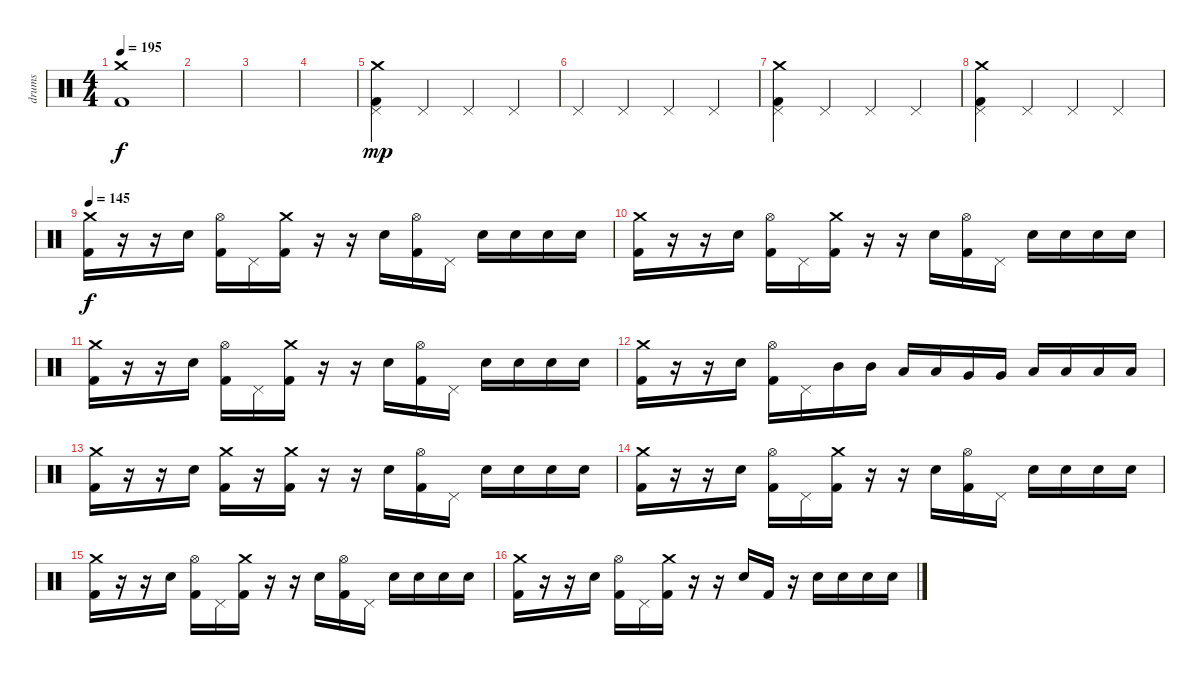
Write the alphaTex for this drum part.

\track ("drums" "drums") {instrument percussion}
\staff {score}
\articulation defaults
\ts (4 4)
\tempo 195
\clef neutral
\ks c
("Crash medium (hit)" "Kick (hit) 2").1{dy f} |
|
|
|
("Pedal Hi-Hat (hit)" "Crash medium (hit)" "Kick (hit) 2").4{dy mp} "Pedal Hi-Hat (hit)".4 "Pedal Hi-Hat (hit)".4 "Pedal Hi-Hat (hit)".4 |
"Pedal Hi-Hat (hit)".4 "Pedal Hi-Hat (hit)".4 "Pedal Hi-Hat (hit)".4 "Pedal Hi-Hat (hit)".4 |
("Pedal Hi-Hat (hit)" "Crash medium (hit)" "Kick (hit) 2").4 "Pedal Hi-Hat (hit)".4 "Pedal Hi-Hat (hit)".4 "Pedal Hi-Hat (hit)".4 |
("Pedal Hi-Hat (hit)" "Crash medium (hit)" "Kick (hit) 2").4 "Pedal Hi-Hat (hit)".4 "Pedal Hi-Hat (hit)".4 "Pedal Hi-Hat (hit)".4 |
\tempo 145
("Crash medium (hit)" "Kick (hit) 2").16{dy f} r.16 r.16 "Electric Snare (hit)".16 ("Hi-Hat (open)" "Kick (hit) 2").16 "Pedal Hi-Hat (hit)".16 ("Crash medium (hit)" "Kick (hit) 2").16 r.16 r.16 "Electric Snare (hit)".16 ("Hi-Hat (open)" "Kick (hit) 2").16 "Pedal Hi-Hat (hit)".16 "Electric Snare (hit)".16 "Electric Snare (hit)".16 "Electric Snare (hit)".16 "Electric Snare (hit)".16 |
("Crash medium (hit)" "Kick (hit) 2").16 r.16 r.16 "Electric Snare (hit)".16 ("Hi-Hat (open)" "Kick (hit) 2").16 "Pedal Hi-Hat (hit)".16 ("Crash medium (hit)" "Kick (hit) 2").16 r.16 r.16 "Electric Snare (hit)".16 ("Hi-Hat (open)" "Kick (hit) 2").16 "Pedal Hi-Hat (hit)".16 "Electric Snare (hit)".16 "Electric Snare (hit)".16 "Electric Snare (hit)".16 "Electric Snare (hit)".16 |
("Crash medium (hit)" "Kick (hit) 2").16 r.16 r.16 "Electric Snare (hit)".16 ("Hi-Hat (open)" "Kick (hit) 2").16 "Pedal Hi-Hat (hit)".16 ("Crash medium (hit)" "Kick (hit) 2").16 r.16 r.16 "Electric Snare (hit)".16 ("Hi-Hat (open)" "Kick (hit) 2").16 "Pedal Hi-Hat (hit)".16 "Electric Snare (hit)".16 "Electric Snare (hit)".16 "Electric Snare (hit)".16 "Electric Snare (hit)".16 |
("Crash medium (hit)" "Kick (hit) 2").16 r.16 r.16 "Electric Snare (hit)".16 ("Hi-Hat (open)" "Kick (hit) 2").16 "Pedal Hi-Hat (hit)".16 "Mid Tom (hit)".16 "Mid Tom (hit)".16 "Low Tom (hit)".16 "Low Tom (hit)".16 "Very Low Tom (hit)".16 "Very Low Tom (hit)".16 "Low Floor Tom (hit)".16 "Low Floor Tom (hit)".16 "Low Floor Tom (hit)".16 "Low Floor Tom (hit)".16 |
("Crash medium (hit)" "Kick (hit) 2").16 r.16 r.16 "Electric Snare (hit)".16 ("Crash medium (hit)" "Kick (hit) 2").16 r.16 ("Crash medium (hit)" "Kick (hit) 2").16 r.16 r.16 "Electric Snare (hit)".16 ("Hi-Hat (open)" "Kick (hit) 2").16 "Pedal Hi-Hat (hit)".16 "Electric Snare (hit)".16 "Electric Snare (hit)".16 "Electric Snare (hit)".16 "Electric Snare (hit)".16 |
("Crash medium (hit)" "Kick (hit) 2").16 r.16 r.16 "Electric Snare (hit)".16 ("Hi-Hat (open)" "Kick (hit) 2").16 "Pedal Hi-Hat (hit)".16 ("Crash medium (hit)" "Kick (hit) 2").16 r.16 r.16 "Electric Snare (hit)".16 ("Hi-Hat (open)" "Kick (hit) 2").16 "Pedal Hi-Hat (hit)".16 "Electric Snare (hit)".16 "Electric Snare (hit)".16 "Electric Snare (hit)".16 "Electric Snare (hit)".16 |
("Crash medium (hit)" "Kick (hit) 2").16 r.16 r.16 "Electric Snare (hit)".16 ("Hi-Hat (open)" "Kick (hit) 2").16 "Pedal Hi-Hat (hit)".16 ("Crash medium (hit)" "Kick (hit) 2").16 r.16 r.16 "Electric Snare (hit)".16 ("Hi-Hat (open)" "Kick (hit) 2").16 "Pedal Hi-Hat (hit)".16 "Electric Snare (hit)".16 "Electric Snare (hit)".16 "Electric Snare (hit)".16 "Electric Snare (hit)".16 |
("Crash medium (hit)" "Kick (hit) 2").16 r.16 r.16 "Electric Snare (hit)".16 ("Hi-Hat (open)" "Kick (hit) 2").16 "Pedal Hi-Hat (hit)".16 ("Crash medium (hit)" "Kick (hit) 2").16 r.16 r.16 "Electric Snare (hit)".16 "Kick (hit) 2".16 r.16 "Electric Snare (hit)".16 "Electric Snare (hit)".16 "Electric Snare (hit)".16 "Electric Snare (hit)".16
